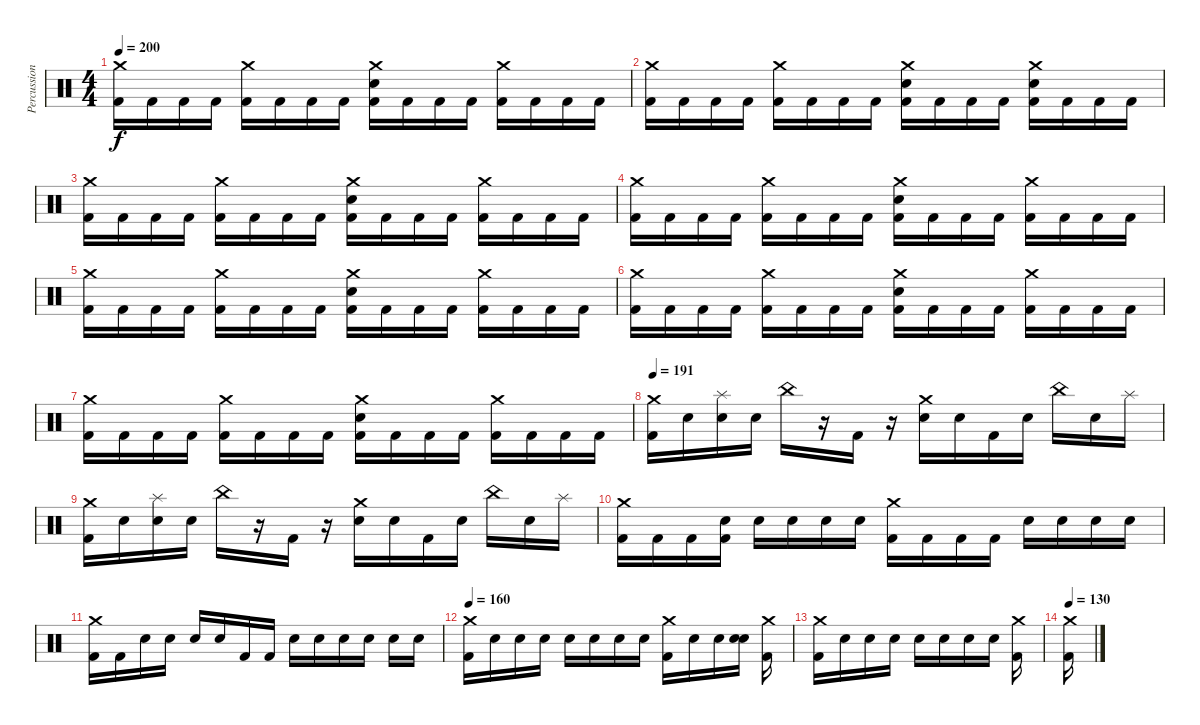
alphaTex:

\track ("Percussion" "Percussion") {instrument percussion}
\staff {score}
\articulation defaults
\ts (4 4)
\tempo 200
\clef neutral
\ks c
("Crash medium (hit)" "Kick (hit) 2").16{dy f} "Kick (hit) 2".16 "Kick (hit) 2".16 "Kick (hit) 2".16 ("Crash medium (hit)" "Kick (hit) 2").16 "Kick (hit) 2".16 "Kick (hit) 2".16 "Kick (hit) 2".16 ("Snare (hit) 2" "Crash medium (hit)" "Kick (hit) 2").16 "Kick (hit) 2".16 "Kick (hit) 2".16 "Kick (hit) 2".16 ("Crash medium (hit)" "Kick (hit) 2").16 "Kick (hit) 2".16 "Kick (hit) 2".16 "Kick (hit) 2".16 |
("Crash medium (hit)" "Kick (hit) 2").16 "Kick (hit) 2".16 "Kick (hit) 2".16 "Kick (hit) 2".16 ("Crash medium (hit)" "Kick (hit) 2").16 "Kick (hit) 2".16 "Kick (hit) 2".16 "Kick (hit) 2".16 ("Snare (hit) 2" "Crash medium (hit)" "Kick (hit) 2").16 "Kick (hit) 2".16 "Kick (hit) 2".16 "Kick (hit) 2".16 ("Crash medium (hit)" "Snare (hit) 2" "Kick (hit) 2").16 "Kick (hit) 2".16 "Kick (hit) 2".16 "Kick (hit) 2".16 |
("Crash medium (hit)" "Kick (hit) 2").16 "Kick (hit) 2".16 "Kick (hit) 2".16 "Kick (hit) 2".16 ("Crash medium (hit)" "Kick (hit) 2").16 "Kick (hit) 2".16 "Kick (hit) 2".16 "Kick (hit) 2".16 ("Snare (hit) 2" "Crash medium (hit)" "Kick (hit) 2").16 "Kick (hit) 2".16 "Kick (hit) 2".16 "Kick (hit) 2".16 ("Crash medium (hit)" "Kick (hit) 2").16 "Kick (hit) 2".16 "Kick (hit) 2".16 "Kick (hit) 2".16 |
("Crash medium (hit)" "Kick (hit) 2").16 "Kick (hit) 2".16 "Kick (hit) 2".16 "Kick (hit) 2".16 ("Crash medium (hit)" "Kick (hit) 2").16 "Kick (hit) 2".16 "Kick (hit) 2".16 "Kick (hit) 2".16 ("Snare (hit) 2" "Crash medium (hit)" "Kick (hit) 2").16 "Kick (hit) 2".16 "Kick (hit) 2".16 "Kick (hit) 2".16 ("Crash medium (hit)" "Kick (hit) 2").16 "Kick (hit) 2".16 "Kick (hit) 2".16 "Kick (hit) 2".16 |
("Crash medium (hit)" "Kick (hit) 2").16 "Kick (hit) 2".16 "Kick (hit) 2".16 "Kick (hit) 2".16 ("Crash medium (hit)" "Kick (hit) 2").16 "Kick (hit) 2".16 "Kick (hit) 2".16 "Kick (hit) 2".16 ("Snare (hit) 2" "Crash medium (hit)" "Kick (hit) 2").16 "Kick (hit) 2".16 "Kick (hit) 2".16 "Kick (hit) 2".16 ("Crash medium (hit)" "Kick (hit) 2").16 "Kick (hit) 2".16 "Kick (hit) 2".16 "Kick (hit) 2".16 |
("Crash medium (hit)" "Kick (hit) 2").16 "Kick (hit) 2".16 "Kick (hit) 2".16 "Kick (hit) 2".16 ("Crash medium (hit)" "Kick (hit) 2").16 "Kick (hit) 2".16 "Kick (hit) 2".16 "Kick (hit) 2".16 ("Snare (hit) 2" "Crash medium (hit)" "Kick (hit) 2").16 "Kick (hit) 2".16 "Kick (hit) 2".16 "Kick (hit) 2".16 ("Crash medium (hit)" "Kick (hit) 2").16 "Kick (hit) 2".16 "Kick (hit) 2".16 "Kick (hit) 2".16 |
("Crash medium (hit)" "Kick (hit) 2").16 "Kick (hit) 2".16 "Kick (hit) 2".16 "Kick (hit) 2".16 ("Crash medium (hit)" "Kick (hit) 2").16 "Kick (hit) 2".16 "Kick (hit) 2".16 "Kick (hit) 2".16 ("Snare (hit) 2" "Crash medium (hit)" "Kick (hit) 2").16 "Kick (hit) 2".16 "Kick (hit) 2".16 "Kick (hit) 2".16 ("Crash medium (hit)" "Kick (hit) 2").16 "Kick (hit) 2".16 "Kick (hit) 2".16 "Kick (hit) 2".16 |
\tempo 191
("Crash medium (hit)" "Kick (hit) 2").16 "Snare (hit)".16 ("Splash (hit)" "Snare (hit)").16 "Snare (hit)".16 "China (hit)".16 r.16 "Kick (hit) 2".16 r.16 ("Crash medium (hit)" "Snare (hit) 2").16 "Snare (hit)".16 "Kick (hit) 2".16 "Snare (hit)".16 "China (hit)".16 "Snare (hit)".16 "Splash (hit)".16 |
("Crash medium (hit)" "Kick (hit) 2").16 "Snare (hit)".16 ("Splash (hit)" "Snare (hit)").16 "Snare (hit)".16 "China (hit)".16 r.16 "Kick (hit) 2".16 r.16 ("Crash medium (hit)" "Snare (hit) 2").16 "Snare (hit)".16 "Kick (hit) 2".16 "Snare (hit)".16 "China (hit)".16 "Snare (hit)".16 "Splash (hit)".16 |
("Crash medium (hit)" "Kick (hit) 2").16 "Kick (hit) 2".16 "Kick (hit) 2".16 ("Snare (hit)" "Kick (hit) 2").16 "Snare (hit) 2".16 "Snare (hit) 2".16 "Snare (hit) 2".16 "Snare (hit) 2".16 ("Crash medium (hit)" "Kick (hit) 2").16 "Kick (hit) 2".16 "Kick (hit) 2".16 "Kick (hit) 2".16 "Snare (hit) 2".16 "Snare (hit) 2".16 "Snare (hit) 2".16 "Snare (hit) 2".16 |
("Crash medium (hit)" "Kick (hit) 2").16 "Kick (hit) 2".16 "Snare (hit) 2".16 "Snare (hit) 2".16 "Snare (hit) 2".16 "Snare (hit) 2".16 "Kick (hit) 2".16 "Kick (hit) 2".16 "Snare (hit) 2".16 "Snare (hit) 2".16 "Snare (hit) 2".16 "Snare (hit) 2".16 "Snare (hit) 2".16 "Snare (hit) 2".16 |
\tempo 160
("Crash medium (hit)" "Kick (hit) 2").16 "Snare (hit)".16 "Snare (hit)".16 "Snare (hit)".16 "Snare (hit)".16 "Snare (hit)".16 "Snare (hit)".16 "Snare (hit)".16 ("Crash medium (hit)" "Kick (hit) 2").16 "Snare (hit)".16 "Snare (hit)".16 ("Snare (hit)" "Snare (hit)").16 ("Crash medium (hit)" "Kick (hit) 2").16 |
("Crash medium (hit)" "Kick (hit) 2").16 "Snare (hit)".16 "Snare (hit)".16 "Snare (hit)".16 "Snare (hit)".16 "Snare (hit)".16 "Snare (hit)".16 "Snare (hit)".16 ("Crash medium (hit)" "Kick (hit) 2").16 |
\tempo 130
("Kick (hit) 2" "Crash medium (hit)").16
